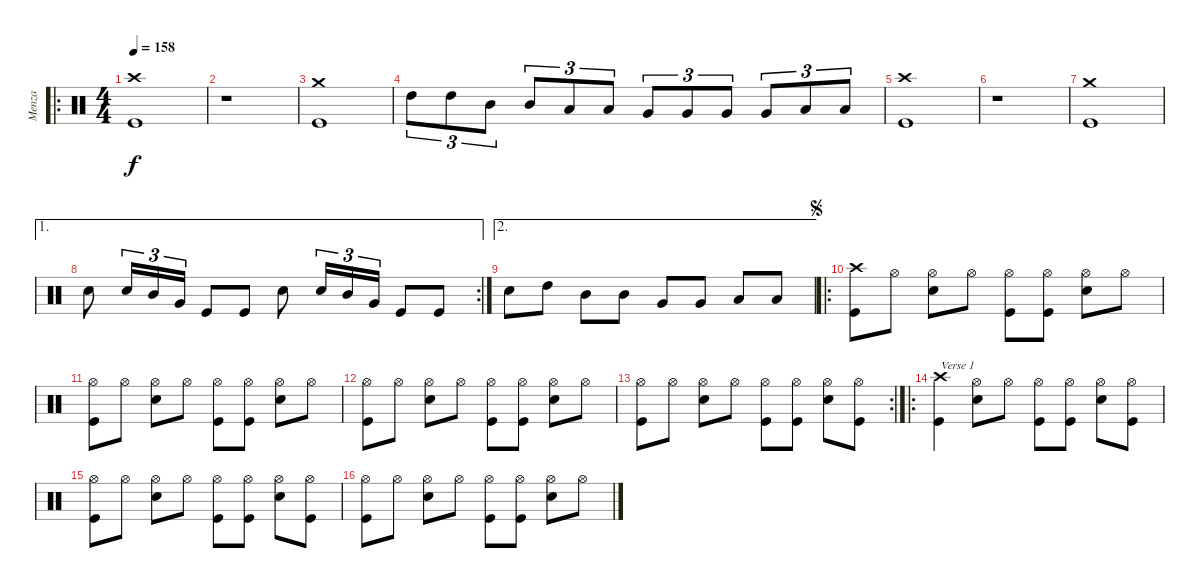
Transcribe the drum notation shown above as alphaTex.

\track ("Menza" "Menza") {instrument percussion}
\staff {score}
\articulation defaults
\ro
\ts (4 4)
\tempo 158
\clef neutral
\ks c
("Crash high (hit)" "Kick (hit)").1{dy f} |
r.1 |
("Crash medium (hit)" "Kick (hit)").1 |
"High Tom (hit)".8{tu (3 2)} "High Tom (hit)".8{tu (3 2)} "Mid Tom (hit)".8{tu (3 2)} "Mid Tom (hit)".8{tu (3 2)} "Low Tom (hit)".8{tu (3 2)} "Low Tom (hit)".8{tu (3 2)} "Very Low Tom (hit)".8{tu (3 2)} "Very Low Tom (hit)".8{tu (3 2)} "Very Low Tom (hit)".8{tu (3 2)} "Very Low Tom (hit)".8{tu (3 2)} "Low Floor Tom (hit)".8{tu (3 2)} "Low Floor Tom (hit)".8{tu (3 2)} |
("Crash high (hit)" "Kick (hit)").1 |
r.1 |
("Crash medium (hit)" "Kick (hit)").1 |
\ae 1
\rc 2 "Snare (hit) 2".8 "Snare (hit) 2".16{tu (3 2)} "Mid Tom (hit)".16{tu (3 2)} "Very Low Tom (hit)".16{tu (3 2)} "Kick (hit)".8 "Kick (hit)".8 "Snare (hit) 2".8 "Snare (hit) 2".16{tu (3 2)} "Mid Tom (hit)".16{tu (3 2)} "Very Low Tom (hit)".16{tu (3 2)} "Kick (hit)".8 "Kick (hit)".8
|
\ae 2 "Snare (hit) 2".8 "High Tom (hit)".8 "Mid Tom (hit)".8 "Mid Tom (hit)".8 "Very Low Tom (hit)".8 "Very Low Tom (hit)".8 "Low Floor Tom (hit)".8 "Low Floor Tom (hit)".8
|
\ro
\jump segno
("Crash high (hit)" "Kick (hit)").8 "Hi-Hat (open)".8 ("Hi-Hat (open)" "Snare (hit) 2").8 "Hi-Hat (open)".8 ("Hi-Hat (open)" "Kick (hit)").8 ("Hi-Hat (open)" "Kick (hit)").8 ("Hi-Hat (open)" "Snare (hit) 2").8 "Hi-Hat (open)".8 |
("Hi-Hat (open)" "Kick (hit)").8 "Hi-Hat (open)".8 ("Hi-Hat (open)" "Snare (hit) 2").8 "Hi-Hat (open)".8 ("Hi-Hat (open)" "Kick (hit)").8 ("Hi-Hat (open)" "Kick (hit)").8 ("Hi-Hat (open)" "Snare (hit) 2").8 "Hi-Hat (open)".8 |
("Hi-Hat (open)" "Kick (hit)").8 "Hi-Hat (open)".8 ("Hi-Hat (open)" "Snare (hit) 2").8 "Hi-Hat (open)".8 ("Hi-Hat (open)" "Kick (hit)").8 ("Hi-Hat (open)" "Kick (hit)").8 ("Hi-Hat (open)" "Snare (hit) 2").8 "Hi-Hat (open)".8 |
\rc 2
("Hi-Hat (open)" "Kick (hit)").8 "Hi-Hat (open)".8 ("Hi-Hat (open)" "Snare (hit) 2").8 "Hi-Hat (open)".8 ("Hi-Hat (open)" "Kick (hit)").8 ("Hi-Hat (open)" "Kick (hit)").8 ("Hi-Hat (open)" "Snare (hit) 2").8 ("Hi-Hat (open)" "Kick (hit)").8 |
\ro
("Crash high (hit)" "Kick (hit)").4{txt "Verse 1"} ("Hi-Hat (open)" "Snare (hit) 2").8 "Hi-Hat (open)".8 ("Hi-Hat (open)" "Kick (hit)").8 ("Hi-Hat (open)" "Kick (hit)").8 ("Hi-Hat (open)" "Snare (hit) 2").8 ("Hi-Hat (open)" "Kick (hit)").8 |
("Hi-Hat (open)" "Kick (hit)").8 "Hi-Hat (open)".8 ("Hi-Hat (open)" "Snare (hit) 2").8 "Hi-Hat (open)".8 ("Hi-Hat (open)" "Kick (hit)").8 ("Hi-Hat (open)" "Kick (hit)").8 ("Hi-Hat (open)" "Snare (hit) 2").8 ("Hi-Hat (open)" "Kick (hit)").8 |
("Hi-Hat (open)" "Kick (hit)").8 "Hi-Hat (open)".8 ("Hi-Hat (open)" "Snare (hit) 2").8 "Hi-Hat (open)".8 ("Hi-Hat (open)" "Kick (hit)").8 ("Hi-Hat (open)" "Kick (hit)").8 ("Hi-Hat (open)" "Snare (hit) 2").8 "Hi-Hat (open)".8
